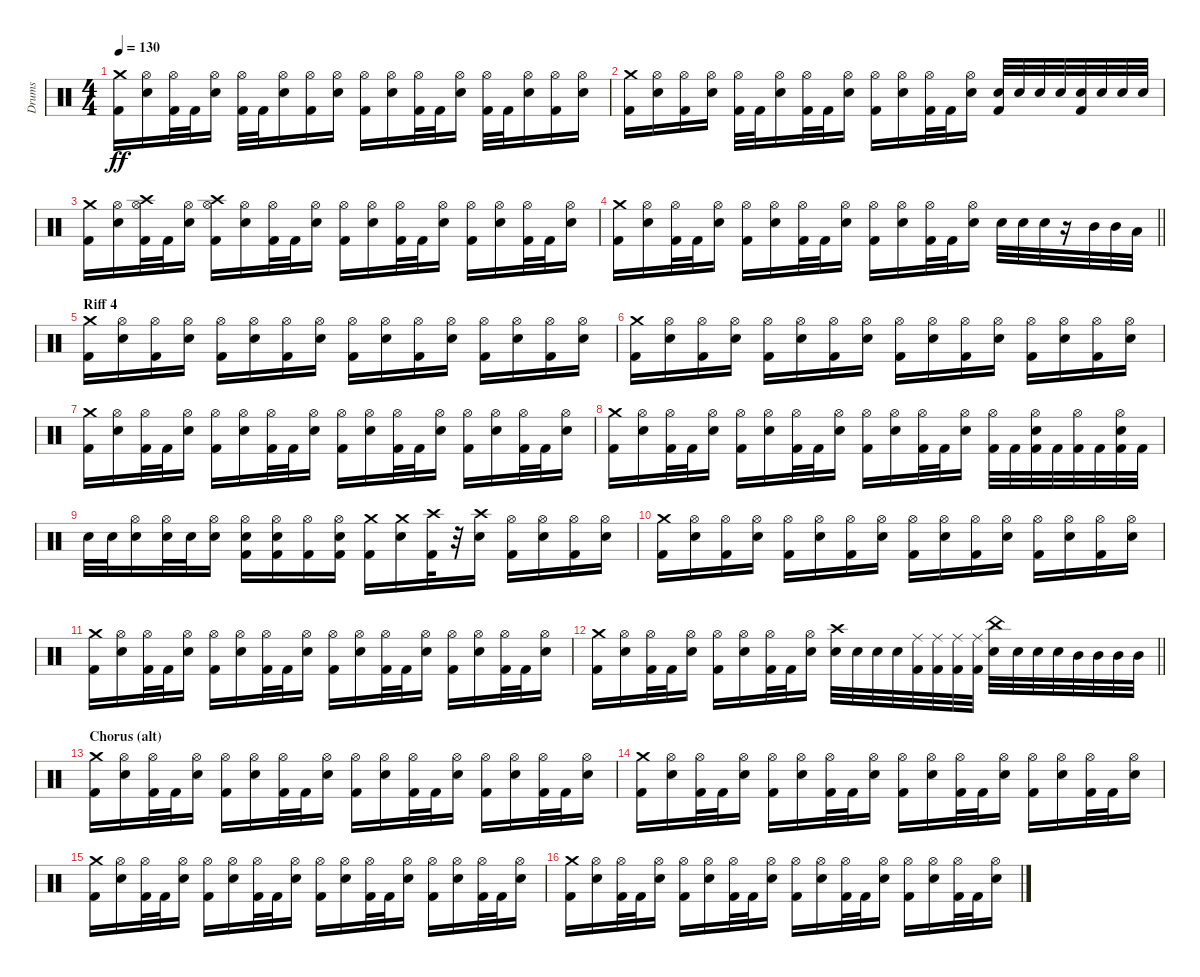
\track ("Drums" "Drums") {instrument percussion}
\staff {score}
\articulation defaults
\ts (4 4)
\tempo 130
\clef neutral
\ks c
("Crash medium (hit)" "Kick (hit) 2").16{dy ff} ("Hi-Hat (open)" "Snare (hit) 2").16 ("Hi-Hat (open)" "Kick (hit) 2").32 "Kick (hit) 2".32 ("Hi-Hat (open)" "Snare (hit) 2").16 ("Hi-Hat (open)" "Kick (hit) 2").32 "Kick (hit) 2".32 ("Hi-Hat (open)" "Snare (hit) 2").16 ("Hi-Hat (open)" "Kick (hit) 2").16 ("Hi-Hat (open)" "Snare (hit) 2").16 ("Hi-Hat (open)" "Kick (hit) 2").16 ("Hi-Hat (open)" "Snare (hit) 2").16 ("Hi-Hat (open)" "Kick (hit) 2").32 "Kick (hit) 2".32 ("Hi-Hat (open)" "Snare (hit) 2").16 ("Hi-Hat (open)" "Kick (hit) 2").32 "Kick (hit) 2".32 ("Hi-Hat (open)" "Snare (hit) 2").16 ("Hi-Hat (open)" "Kick (hit) 2").16 ("Hi-Hat (open)" "Snare (hit) 2").16 |
("Crash medium (hit)" "Kick (hit) 2").16 ("Hi-Hat (open)" "Snare (hit) 2").16 ("Hi-Hat (open)" "Kick (hit) 2").16 ("Hi-Hat (open)" "Snare (hit) 2").16 ("Hi-Hat (open)" "Kick (hit) 2").32 "Kick (hit) 2".32 ("Hi-Hat (open)" "Snare (hit) 2").16 ("Hi-Hat (open)" "Kick (hit) 2").32 "Kick (hit) 2".32 ("Hi-Hat (open)" "Snare (hit) 2").16 ("Hi-Hat (open)" "Kick (hit) 2").16 ("Hi-Hat (open)" "Snare (hit) 2").16 ("Hi-Hat (open)" "Kick (hit) 2").32 "Kick (hit) 2".32 ("Hi-Hat (open)" "Snare (hit) 2").16 ("Kick (hit) 2" "Snare (hit) 2").32 "Snare (hit) 2".32 "Snare (hit) 2".32 "Snare (hit) 2".32 ("Kick (hit) 2" "Snare (hit) 2").32 "Snare (hit) 2".32 "Snare (hit) 2".32 "Snare (hit) 2".32 |
("Crash medium (hit)" "Kick (hit) 2").16 ("Hi-Hat (open)" "Snare (hit) 2").16 ("Hi-Hat (open)" "Crash high (hit)" "Kick (hit) 2").32 "Kick (hit) 2".32 ("Hi-Hat (open)" "Snare (hit) 2").16 ("Hi-Hat (open)" "Crash high (hit)" "Kick (hit) 2").16 ("Hi-Hat (open)" "Snare (hit) 2").16 ("Hi-Hat (open)" "Kick (hit) 2").32 "Kick (hit) 2".32 ("Hi-Hat (open)" "Snare (hit) 2").16 ("Hi-Hat (open)" "Kick (hit) 2").16 ("Hi-Hat (open)" "Snare (hit) 2").16 ("Hi-Hat (open)" "Kick (hit) 2").32 "Kick (hit) 2".32 ("Hi-Hat (open)" "Snare (hit) 2").16 ("Hi-Hat (open)" "Kick (hit) 2").16 ("Hi-Hat (open)" "Snare (hit) 2").16 ("Hi-Hat (open)" "Kick (hit) 2").32 "Kick (hit) 2".32 ("Hi-Hat (open)" "Snare (hit) 2").16 |
\barLineRight lightlight
("Crash medium (hit)" "Kick (hit) 2").16 ("Hi-Hat (open)" "Snare (hit) 2").16 ("Hi-Hat (open)" "Kick (hit) 2").32 "Kick (hit) 2".32 ("Hi-Hat (open)" "Snare (hit) 2").16 ("Hi-Hat (open)" "Kick (hit) 2").16 ("Hi-Hat (open)" "Snare (hit) 2").16 ("Hi-Hat (open)" "Kick (hit) 2").32 "Kick (hit) 2".32 ("Hi-Hat (open)" "Snare (hit) 2").16 ("Hi-Hat (open)" "Kick (hit) 2").16 ("Hi-Hat (open)" "Snare (hit) 2").16 ("Hi-Hat (open)" "Kick (hit) 2").32 "Kick (hit) 2".32 ("Hi-Hat (open)" "Snare (hit) 2").16 "Snare (hit) 2".32 "Snare (hit) 2".32 "Snare (hit) 2".32 r.16 "Mid Tom (hit)".32 "Mid Tom (hit)".32 "Low Tom (hit)".32 |
\section ("" "Riff 4")
("Crash medium (hit)" "Kick (hit) 2").16 ("Hi-Hat (open)" "Snare (hit) 2").16 ("Hi-Hat (open)" "Kick (hit) 2").16 ("Hi-Hat (open)" "Snare (hit) 2").16 ("Hi-Hat (open)" "Kick (hit) 2").16 ("Hi-Hat (open)" "Snare (hit) 2").16 ("Hi-Hat (open)" "Kick (hit) 2").16 ("Hi-Hat (open)" "Snare (hit) 2").16 ("Hi-Hat (open)" "Kick (hit) 2").16 ("Hi-Hat (open)" "Snare (hit) 2").16 ("Hi-Hat (open)" "Kick (hit) 2").16 ("Hi-Hat (open)" "Snare (hit) 2").16 ("Hi-Hat (open)" "Kick (hit) 2").16 ("Hi-Hat (open)" "Snare (hit) 2").16 ("Hi-Hat (open)" "Kick (hit) 2").16 ("Hi-Hat (open)" "Snare (hit) 2").16 |
("Crash medium (hit)" "Kick (hit) 2").16 ("Hi-Hat (open)" "Snare (hit) 2").16 ("Hi-Hat (open)" "Kick (hit) 2").16 ("Hi-Hat (open)" "Snare (hit) 2").16 ("Hi-Hat (open)" "Kick (hit) 2").16 ("Hi-Hat (open)" "Snare (hit) 2").16 ("Hi-Hat (open)" "Kick (hit) 2").16 ("Hi-Hat (open)" "Snare (hit) 2").16 ("Hi-Hat (open)" "Kick (hit) 2").16 ("Hi-Hat (open)" "Snare (hit) 2").16 ("Hi-Hat (open)" "Kick (hit) 2").16 ("Hi-Hat (open)" "Snare (hit) 2").16 ("Hi-Hat (open)" "Kick (hit) 2").16 ("Hi-Hat (open)" "Snare (hit) 2").16 ("Hi-Hat (open)" "Kick (hit) 2").16 ("Hi-Hat (open)" "Snare (hit) 2").16 |
("Crash medium (hit)" "Kick (hit) 2").16 ("Hi-Hat (open)" "Snare (hit) 2").16 ("Hi-Hat (open)" "Kick (hit) 2").32 "Kick (hit) 2".32 ("Hi-Hat (open)" "Snare (hit) 2").16 ("Hi-Hat (open)" "Kick (hit) 2").16 ("Hi-Hat (open)" "Snare (hit) 2").16 ("Hi-Hat (open)" "Kick (hit) 2").32 "Kick (hit) 2".32 ("Hi-Hat (open)" "Snare (hit) 2").16 ("Hi-Hat (open)" "Kick (hit) 2").16 ("Hi-Hat (open)" "Snare (hit) 2").16 ("Hi-Hat (open)" "Kick (hit) 2").32 "Kick (hit) 2".32 ("Hi-Hat (open)" "Snare (hit) 2").16 ("Hi-Hat (open)" "Kick (hit) 2").16 ("Hi-Hat (open)" "Snare (hit) 2").16 ("Hi-Hat (open)" "Kick (hit) 2").32 "Kick (hit) 2".32 ("Hi-Hat (open)" "Snare (hit) 2").16 |
("Crash medium (hit)" "Kick (hit) 2").16 ("Hi-Hat (open)" "Snare (hit) 2").16 ("Hi-Hat (open)" "Kick (hit) 2").32 "Kick (hit) 2".32 ("Hi-Hat (open)" "Snare (hit) 2").16 ("Hi-Hat (open)" "Kick (hit) 2").16 ("Hi-Hat (open)" "Snare (hit) 2").16 ("Hi-Hat (open)" "Kick (hit) 2").32 "Kick (hit) 2".32 ("Hi-Hat (open)" "Snare (hit) 2").16 ("Hi-Hat (open)" "Kick (hit) 2").16 ("Hi-Hat (open)" "Snare (hit) 2").16 ("Hi-Hat (open)" "Kick (hit) 2").32 "Kick (hit) 2".32 ("Hi-Hat (open)" "Snare (hit) 2").16 ("Hi-Hat (open)" "Kick (hit) 2").32 "Kick (hit) 2".32 ("Hi-Hat (open)" "Kick (hit) 2" "Snare (hit) 2").32 "Kick (hit) 2".32 ("Hi-Hat (open)" "Kick (hit) 2").32 "Kick (hit) 2".32 ("Hi-Hat (open)" "Kick (hit) 2" "Snare (hit) 2").32 "Kick (hit) 2".32 |
"Snare (hit) 2".32 "Snare (hit) 2".32 ("Hi-Hat (open)" "Snare (hit) 2").16 ("Hi-Hat (open)" "Snare (hit) 2").32 "Snare (hit) 2".32 ("Hi-Hat (open)" "Snare (hit) 2").16 ("Hi-Hat (open)" "Kick (hit) 2" "Snare (hit) 2").16 ("Hi-Hat (open)" "Kick (hit) 2" "Snare (hit) 2").16 ("Hi-Hat (open)" "Kick (hit) 2").16 ("Hi-Hat (open)" "Kick (hit) 2" "Snare (hit) 2").16 ("Crash medium (hit)" "Kick (hit) 2").16 ("Crash medium (hit)" "Snare (hit) 2").16 ("Crash high (hit)" "Kick (hit) 2").32 r.32 ("Crash high (hit)" "Snare (hit) 2").16 ("Hi-Hat (open)" "Kick (hit) 2").16 ("Hi-Hat (open)" "Snare (hit) 2").16 ("Hi-Hat (open)" "Kick (hit) 2").16 ("Hi-Hat (open)" "Snare (hit) 2").16 |
("Crash medium (hit)" "Kick (hit) 2").16 ("Hi-Hat (open)" "Snare (hit) 2").16 ("Hi-Hat (open)" "Kick (hit) 2").16 ("Hi-Hat (open)" "Snare (hit) 2").16 ("Hi-Hat (open)" "Kick (hit) 2").16 ("Hi-Hat (open)" "Snare (hit) 2").16 ("Hi-Hat (open)" "Kick (hit) 2").16 ("Hi-Hat (open)" "Snare (hit) 2").16 ("Hi-Hat (open)" "Kick (hit) 2").16 ("Hi-Hat (open)" "Snare (hit) 2").16 ("Hi-Hat (open)" "Kick (hit) 2").16 ("Hi-Hat (open)" "Snare (hit) 2").16 ("Hi-Hat (open)" "Kick (hit) 2").16 ("Hi-Hat (open)" "Snare (hit) 2").16 ("Hi-Hat (open)" "Kick (hit) 2").16 ("Hi-Hat (open)" "Snare (hit) 2").16 |
("Crash medium (hit)" "Kick (hit) 2").16 ("Hi-Hat (open)" "Snare (hit) 2").16 ("Hi-Hat (open)" "Kick (hit) 2").32 "Kick (hit) 2".32 ("Hi-Hat (open)" "Snare (hit) 2").16 ("Hi-Hat (open)" "Kick (hit) 2").16 ("Hi-Hat (open)" "Snare (hit) 2").16 ("Hi-Hat (open)" "Kick (hit) 2").32 "Kick (hit) 2".32 ("Hi-Hat (open)" "Snare (hit) 2").16 ("Hi-Hat (open)" "Kick (hit) 2").16 ("Hi-Hat (open)" "Snare (hit) 2").16 ("Hi-Hat (open)" "Kick (hit) 2").32 "Kick (hit) 2".32 ("Hi-Hat (open)" "Snare (hit) 2").16 ("Hi-Hat (open)" "Kick (hit) 2").16 ("Hi-Hat (open)" "Snare (hit) 2").16 ("Hi-Hat (open)" "Kick (hit) 2").32 "Kick (hit) 2".32 ("Hi-Hat (open)" "Snare (hit) 2").16 |
\barLineRight lightlight
("Crash medium (hit)" "Kick (hit) 2").16 ("Hi-Hat (open)" "Snare (hit) 2").16 ("Hi-Hat (open)" "Kick (hit) 2").32 "Kick (hit) 2".32 ("Hi-Hat (open)" "Snare (hit) 2").16 ("Hi-Hat (open)" "Kick (hit) 2").16 ("Hi-Hat (open)" "Snare (hit) 2").16 ("Hi-Hat (open)" "Kick (hit) 2").32 "Kick (hit) 2".32 ("Hi-Hat (open)" "Snare (hit) 2").16 ("Crash high (hit)" "Snare (hit) 2").32 "Snare (hit) 2".32 "Snare (hit) 2".32 "Snare (hit) 2".32 ("Kick (hit) 2" "Ride (middle)").32 ("Kick (hit) 2" "Ride (middle)").32 ("Kick (hit) 2" "Ride (middle)").32 ("Kick (hit) 2" "Ride (middle)").32 ("China (hit)" "Snare (hit) 2").32 "Snare (hit) 2".32 "Snare (hit) 2".32 "Snare (hit) 2".32 "Mid Tom (hit)".32 "Mid Tom (hit)".32 "Mid Tom (hit)".32 "Mid Tom (hit)".32 |
\section ("" "Chorus (alt)")
("Crash medium (hit)" "Kick (hit) 2").16 ("Hi-Hat (open)" "Snare (hit) 2").16 ("Hi-Hat (open)" "Kick (hit) 2").32 "Kick (hit) 2".32 ("Hi-Hat (open)" "Snare (hit) 2").16 ("Hi-Hat (open)" "Kick (hit) 2").16 ("Hi-Hat (open)" "Snare (hit) 2").16 ("Hi-Hat (open)" "Kick (hit) 2").32 "Kick (hit) 2".32 ("Hi-Hat (open)" "Snare (hit) 2").16 ("Hi-Hat (open)" "Kick (hit) 2").16 ("Hi-Hat (open)" "Snare (hit) 2").16 ("Hi-Hat (open)" "Kick (hit) 2").32 "Kick (hit) 2".32 ("Hi-Hat (open)" "Snare (hit) 2").16 ("Hi-Hat (open)" "Kick (hit) 2").16 ("Hi-Hat (open)" "Snare (hit) 2").16 ("Hi-Hat (open)" "Kick (hit) 2").32 "Kick (hit) 2".32 ("Hi-Hat (open)" "Snare (hit) 2").16 |
("Crash medium (hit)" "Kick (hit) 2").16 ("Hi-Hat (open)" "Snare (hit) 2").16 ("Hi-Hat (open)" "Kick (hit) 2").32 "Kick (hit) 2".32 ("Hi-Hat (open)" "Snare (hit) 2").16 ("Hi-Hat (open)" "Kick (hit) 2").16 ("Hi-Hat (open)" "Snare (hit) 2").16 ("Hi-Hat (open)" "Kick (hit) 2").32 "Kick (hit) 2".32 ("Hi-Hat (open)" "Snare (hit) 2").16 ("Hi-Hat (open)" "Kick (hit) 2").16 ("Hi-Hat (open)" "Snare (hit) 2").16 ("Hi-Hat (open)" "Kick (hit) 2").32 "Kick (hit) 2".32 ("Hi-Hat (open)" "Snare (hit) 2").16 ("Hi-Hat (open)" "Kick (hit) 2").16 ("Hi-Hat (open)" "Snare (hit) 2").16 ("Hi-Hat (open)" "Kick (hit) 2").32 "Kick (hit) 2".32 ("Hi-Hat (open)" "Snare (hit) 2").16 |
("Crash medium (hit)" "Kick (hit) 2").16 ("Hi-Hat (open)" "Snare (hit) 2").16 ("Hi-Hat (open)" "Kick (hit) 2").32 "Kick (hit) 2".32 ("Hi-Hat (open)" "Snare (hit) 2").16 ("Hi-Hat (open)" "Kick (hit) 2").16 ("Hi-Hat (open)" "Snare (hit) 2").16 ("Hi-Hat (open)" "Kick (hit) 2").32 "Kick (hit) 2".32 ("Hi-Hat (open)" "Snare (hit) 2").16 ("Hi-Hat (open)" "Kick (hit) 2").16 ("Hi-Hat (open)" "Snare (hit) 2").16 ("Hi-Hat (open)" "Kick (hit) 2").32 "Kick (hit) 2".32 ("Hi-Hat (open)" "Snare (hit) 2").16 ("Hi-Hat (open)" "Kick (hit) 2").16 ("Hi-Hat (open)" "Snare (hit) 2").16 ("Hi-Hat (open)" "Kick (hit) 2").32 "Kick (hit) 2".32 ("Hi-Hat (open)" "Snare (hit) 2").16 |
("Crash medium (hit)" "Kick (hit) 2").16 ("Hi-Hat (open)" "Snare (hit) 2").16 ("Hi-Hat (open)" "Kick (hit) 2").32 "Kick (hit) 2".32 ("Hi-Hat (open)" "Snare (hit) 2").16 ("Hi-Hat (open)" "Kick (hit) 2").16 ("Hi-Hat (open)" "Snare (hit) 2").16 ("Hi-Hat (open)" "Kick (hit) 2").32 "Kick (hit) 2".32 ("Hi-Hat (open)" "Snare (hit) 2").16 ("Hi-Hat (open)" "Kick (hit) 2").16 ("Hi-Hat (open)" "Snare (hit) 2").16 ("Hi-Hat (open)" "Kick (hit) 2").32 "Kick (hit) 2".32 ("Hi-Hat (open)" "Snare (hit) 2").16 ("Hi-Hat (open)" "Kick (hit) 2").16 ("Hi-Hat (open)" "Snare (hit) 2").16 ("Hi-Hat (open)" "Kick (hit) 2").32 "Kick (hit) 2".32 ("Hi-Hat (open)" "Snare (hit) 2").16
